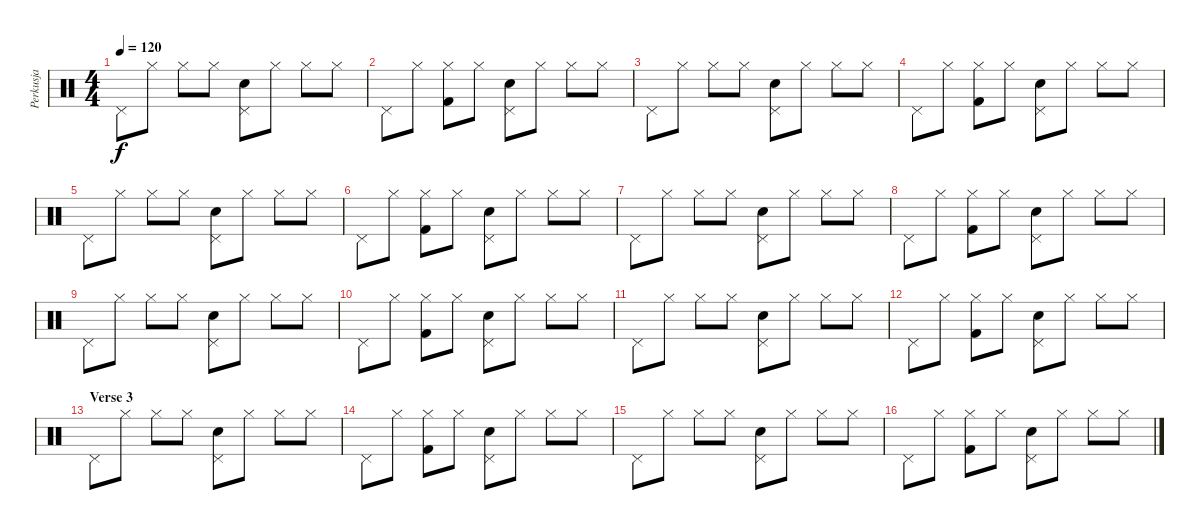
\track ("Perkusja" "Perkusja") {instrument percussion}
\staff {score}
\articulation defaults
\ts (4 4)
\tempo 120
\clef neutral
\ks c "Pedal Hi-Hat (hit)".8{dy f} "Hi-Hat (closed)".8 "Hi-Hat (closed)".8 "Hi-Hat (closed)".8
("Pedal Hi-Hat (hit)" "Snare (hit) 2").8 "Hi-Hat (closed)".8 "Hi-Hat (closed)".8 "Hi-Hat (closed)".8 |
"Pedal Hi-Hat (hit)".8 "Hi-Hat (closed)".8 ("Hi-Hat (closed)" "Kick (hit) 2").8 "Hi-Hat (closed)".8 ("Pedal Hi-Hat (hit)" "Snare (hit) 2").8 "Hi-Hat (closed)".8 "Hi-Hat (closed)".8 "Hi-Hat (closed)".8 |
"Pedal Hi-Hat (hit)".8 "Hi-Hat (closed)".8 "Hi-Hat (closed)".8 "Hi-Hat (closed)".8 ("Pedal Hi-Hat (hit)" "Snare (hit) 2").8 "Hi-Hat (closed)".8 "Hi-Hat (closed)".8 "Hi-Hat (closed)".8 |
"Pedal Hi-Hat (hit)".8 "Hi-Hat (closed)".8 ("Hi-Hat (closed)" "Kick (hit) 2").8 "Hi-Hat (closed)".8 ("Pedal Hi-Hat (hit)" "Snare (hit) 2").8 "Hi-Hat (closed)".8 "Hi-Hat (closed)".8 "Hi-Hat (closed)".8 |
"Pedal Hi-Hat (hit)".8 "Hi-Hat (closed)".8 "Hi-Hat (closed)".8 "Hi-Hat (closed)".8 ("Pedal Hi-Hat (hit)" "Snare (hit) 2").8 "Hi-Hat (closed)".8 "Hi-Hat (closed)".8 "Hi-Hat (closed)".8 |
"Pedal Hi-Hat (hit)".8 "Hi-Hat (closed)".8 ("Hi-Hat (closed)" "Kick (hit) 2").8 "Hi-Hat (closed)".8 ("Pedal Hi-Hat (hit)" "Snare (hit) 2").8 "Hi-Hat (closed)".8 "Hi-Hat (closed)".8 "Hi-Hat (closed)".8 |
"Pedal Hi-Hat (hit)".8 "Hi-Hat (closed)".8 "Hi-Hat (closed)".8 "Hi-Hat (closed)".8 ("Pedal Hi-Hat (hit)" "Snare (hit) 2").8 "Hi-Hat (closed)".8 "Hi-Hat (closed)".8 "Hi-Hat (closed)".8 |
"Pedal Hi-Hat (hit)".8 "Hi-Hat (closed)".8 ("Hi-Hat (closed)" "Kick (hit) 2").8 "Hi-Hat (closed)".8 ("Pedal Hi-Hat (hit)" "Snare (hit) 2").8 "Hi-Hat (closed)".8 "Hi-Hat (closed)".8 "Hi-Hat (closed)".8 |
"Pedal Hi-Hat (hit)".8 "Hi-Hat (closed)".8 "Hi-Hat (closed)".8 "Hi-Hat (closed)".8 ("Pedal Hi-Hat (hit)" "Snare (hit) 2").8 "Hi-Hat (closed)".8 "Hi-Hat (closed)".8 "Hi-Hat (closed)".8 |
"Pedal Hi-Hat (hit)".8 "Hi-Hat (closed)".8 ("Hi-Hat (closed)" "Kick (hit) 2").8 "Hi-Hat (closed)".8 ("Pedal Hi-Hat (hit)" "Snare (hit) 2").8 "Hi-Hat (closed)".8 "Hi-Hat (closed)".8 "Hi-Hat (closed)".8 |
"Pedal Hi-Hat (hit)".8 "Hi-Hat (closed)".8 "Hi-Hat (closed)".8 "Hi-Hat (closed)".8 ("Pedal Hi-Hat (hit)" "Snare (hit) 2").8 "Hi-Hat (closed)".8 "Hi-Hat (closed)".8 "Hi-Hat (closed)".8 |
"Pedal Hi-Hat (hit)".8 "Hi-Hat (closed)".8 ("Hi-Hat (closed)" "Kick (hit) 2").8 "Hi-Hat (closed)".8 ("Pedal Hi-Hat (hit)" "Snare (hit) 2").8 "Hi-Hat (closed)".8 "Hi-Hat (closed)".8 "Hi-Hat (closed)".8 |
\section ("" "Verse 3")
"Pedal Hi-Hat (hit)".8 "Hi-Hat (closed)".8 "Hi-Hat (closed)".8 "Hi-Hat (closed)".8 ("Pedal Hi-Hat (hit)" "Snare (hit) 2").8 "Hi-Hat (closed)".8 "Hi-Hat (closed)".8 "Hi-Hat (closed)".8 |
"Pedal Hi-Hat (hit)".8 "Hi-Hat (closed)".8 ("Hi-Hat (closed)" "Kick (hit) 2").8 "Hi-Hat (closed)".8 ("Pedal Hi-Hat (hit)" "Snare (hit) 2").8 "Hi-Hat (closed)".8 "Hi-Hat (closed)".8 "Hi-Hat (closed)".8 |
"Pedal Hi-Hat (hit)".8 "Hi-Hat (closed)".8 "Hi-Hat (closed)".8 "Hi-Hat (closed)".8 ("Pedal Hi-Hat (hit)" "Snare (hit) 2").8 "Hi-Hat (closed)".8 "Hi-Hat (closed)".8 "Hi-Hat (closed)".8 |
"Pedal Hi-Hat (hit)".8 "Hi-Hat (closed)".8 ("Hi-Hat (closed)" "Kick (hit) 2").8 "Hi-Hat (closed)".8 ("Pedal Hi-Hat (hit)" "Snare (hit) 2").8 "Hi-Hat (closed)".8 "Hi-Hat (closed)".8 "Hi-Hat (closed)".8
